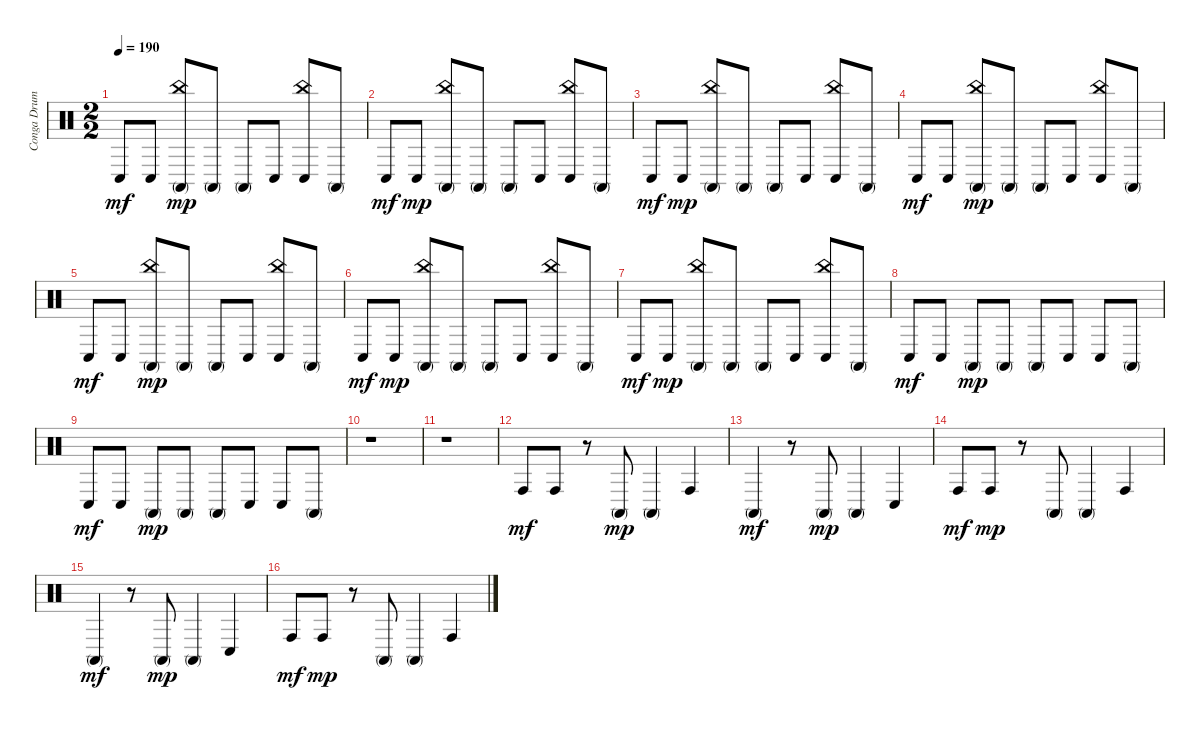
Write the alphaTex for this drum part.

\track ("Conga Drums" "Conga Drum") {instrument percussion}
\staff {score}
\articulation defaults
\ts (2 2)
\tempo 190
\clef neutral
\ks c "Conga low (hit)".8{dy mf} "Conga low (hit)".8
("China (hit)" "Conga high (mute)").8{dy mp} "Conga high (mute)".8 "Conga high (mute)".8 "Conga low (hit)".8 ("China (hit)" "Conga low (hit)").8 "Conga high (mute)".8 |
"Conga low (hit)".8{dy mf} "Conga low (hit)".8{dy mp} ("China (hit)" "Conga high (mute)").8 "Conga high (mute)".8 "Conga high (mute)".8 "Conga low (hit)".8 ("China (hit)" "Conga low (hit)").8 "Conga high (mute)".8 |
"Conga low (hit)".8{dy mf} "Conga low (hit)".8{dy mp} ("China (hit)" "Conga high (mute)").8 "Conga high (mute)".8 "Conga high (mute)".8 "Conga low (hit)".8 ("China (hit)" "Conga low (hit)").8 "Conga high (mute)".8 |
"Conga low (hit)".8{dy mf} "Conga low (hit)".8 ("China (hit)" "Conga high (mute)").8{dy mp} "Conga high (mute)".8 "Conga high (mute)".8 "Conga low (hit)".8 ("China (hit)" "Conga low (hit)").8 "Conga high (mute)".8 |
"Conga low (hit)".8{dy mf} "Conga low (hit)".8 ("China (hit)" "Conga high (mute)").8{dy mp} "Conga high (mute)".8 "Conga high (mute)".8 "Conga low (hit)".8 ("China (hit)" "Conga low (hit)").8 "Conga high (mute)".8 |
"Conga low (hit)".8{dy mf} "Conga low (hit)".8{dy mp} ("China (hit)" "Conga high (mute)").8 "Conga high (mute)".8 "Conga high (mute)".8 "Conga low (hit)".8 ("China (hit)" "Conga low (hit)").8 "Conga high (mute)".8 |
"Conga low (hit)".8{dy mf} "Conga low (hit)".8{dy mp} ("China (hit)" "Conga high (mute)").8 "Conga high (mute)".8 "Conga high (mute)".8 "Conga low (hit)".8 ("China (hit)" "Conga low (hit)").8 "Conga high (mute)".8 |
"Conga low (hit)".8{dy mf} "Conga low (hit)".8 "Conga high (mute)".8{dy mp} "Conga high (mute)".8 "Conga high (mute)".8 "Conga low (hit)".8 "Conga low (hit)".8 "Conga high (mute)".8 |
"Conga low (hit)".8{dy mf} "Conga low (hit)".8 "Conga high (mute)".8{dy mp} "Conga high (mute)".8 "Conga high (mute)".8 "Conga low (hit)".8 "Conga low (hit)".8 "Conga high (mute)".8 |
r.1 |
r.1 |
"Conga high (hit)".8{dy mf} "Conga high (hit)".8 r.8 "Conga high (mute)".8{dy mp} "Conga high (mute)".4 "Conga high (hit)".4 |
"Conga high (mute)".4{dy mf} r.8 "Conga high (mute)".8{dy mp} "Conga high (mute)".4 "Conga low (hit)".4 |
"Conga high (hit)".8{dy mf} "Conga high (hit)".8{dy mp} r.8 "Conga high (mute)".8 "Conga high (mute)".4 "Conga high (hit)".4 |
"Conga high (mute)".4{dy mf} r.8 "Conga high (mute)".8{dy mp} "Conga high (mute)".4 "Conga low (hit)".4 |
"Conga high (hit)".8{dy mf} "Conga high (hit)".8{dy mp} r.8 "Conga high (mute)".8 "Conga high (mute)".4 "Conga high (hit)".4
